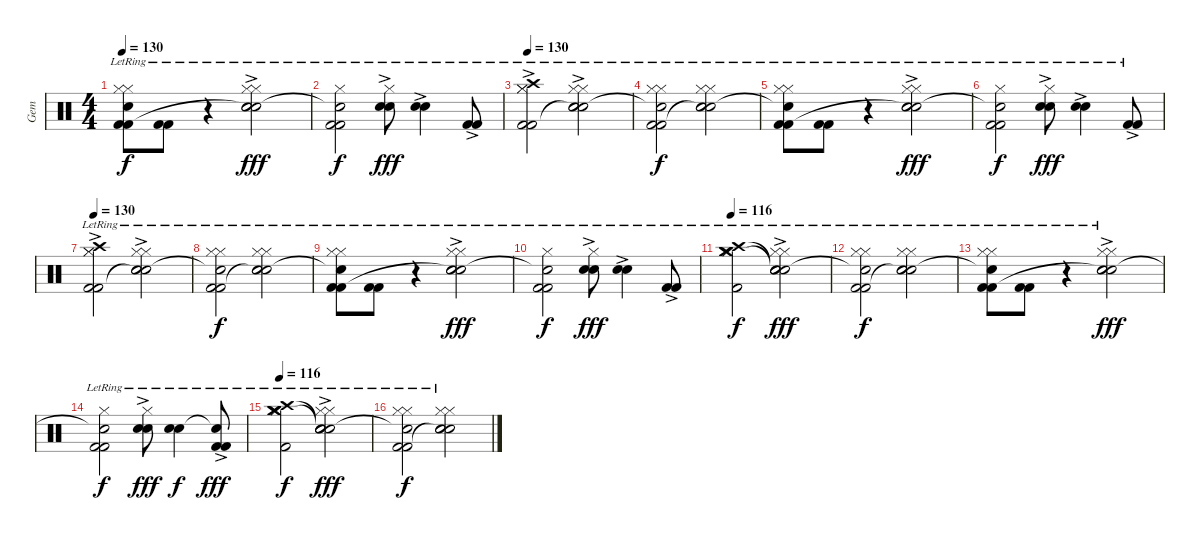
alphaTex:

\track ("Gem" "Gem") {instrument percussion}
\staff {score}
\articulation defaults
\ts (4 4)
\tempo 130
\clef neutral
\ks c
("Hi-Hat (closed)"{lr} "Hi-Hat (closed)"{lr} "Kick (hit) 2" "Snare (hit)"{t} "Kick (hit) 2"{lr}).8{dy f} ("Kick (hit) 2" "Kick (hit) 2"{lr}).8 r.4 ("Hi-Hat (closed)"{lr} "Hi-Hat (closed)"{lr} "Snare (hit) 2" "Snare (hit) 2"{ac lr} "Snare (hit)"{t}).2{dy fff} |
("Hi-Hat (closed)"{lr} "Kick (hit) 2" "Snare (hit)"{t} "Kick (hit) 2"{lr}).2{dy f} ("Hi-Hat (closed)"{lr} "Snare (hit) 2" "Snare (hit) 2"{ac lr}).8{dy fff} ("Snare (hit) 2" "Snare (hit) 2"{ac lr}).4 ("Kick (hit) 2" "Kick (hit) 2"{ac lr}).8 |
\tempo 130
("Hi-Hat (closed)"{lr} "Hi-Hat (closed)"{lr} "Kick (hit) 2" "Crash high (hit)"{ac lr} "Kick (hit) 2"{lr}).2 ("Hi-Hat (closed)"{lr} "Hi-Hat (closed)"{lr} "Snare (hit) 2" "Snare (hit) 2"{ac lr} "Snare (hit)"{t}).2 |
("Hi-Hat (closed)"{lr} "Hi-Hat (closed)"{lr} "Kick (hit) 2" "Snare (hit)"{t} "Kick (hit) 2"{lr}).2{dy f} ("Hi-Hat (closed)"{lr} "Hi-Hat (closed)"{lr} "Snare (hit) 2" "Snare (hit) 2"{lr} "Snare (hit)"{t}).2 |
("Hi-Hat (closed)"{lr} "Hi-Hat (closed)"{lr} "Kick (hit) 2" "Snare (hit)"{t} "Kick (hit) 2"{lr}).8 ("Kick (hit) 2" "Kick (hit) 2"{lr}).8 r.4 ("Hi-Hat (closed)"{lr} "Hi-Hat (closed)"{lr} "Snare (hit) 2" "Snare (hit) 2"{ac lr} "Snare (hit)"{t}).2{dy fff} |
("Hi-Hat (closed)"{lr} "Kick (hit) 2" "Snare (hit)"{t} "Kick (hit) 2"{lr}).2{dy f} ("Hi-Hat (closed)"{lr} "Snare (hit) 2" "Snare (hit) 2"{ac lr}).8{dy fff} ("Snare (hit) 2" "Snare (hit) 2"{ac lr}).4 ("Kick (hit) 2" "Kick (hit) 2"{ac lr}).8 |
\tempo 130
("Hi-Hat (closed)"{lr} "Hi-Hat (closed)"{lr} "Kick (hit) 2" "Crash high (hit)"{ac lr} "Kick (hit) 2"{lr}).2 ("Hi-Hat (closed)"{lr} "Hi-Hat (closed)"{lr} "Snare (hit) 2" "Snare (hit) 2"{ac lr} "Snare (hit)"{t}).2 |
("Hi-Hat (closed)"{lr} "Hi-Hat (closed)"{lr} "Kick (hit) 2" "Snare (hit)"{t} "Kick (hit) 2"{lr}).2{dy f} ("Hi-Hat (closed)"{lr} "Hi-Hat (closed)"{lr} "Snare (hit) 2" "Snare (hit) 2"{lr} "Snare (hit)"{t}).2 |
("Hi-Hat (closed)"{lr} "Hi-Hat (closed)"{lr} "Kick (hit) 2" "Snare (hit)"{t} "Kick (hit) 2"{lr}).8 ("Kick (hit) 2" "Kick (hit) 2"{lr}).8 r.4 ("Hi-Hat (closed)"{lr} "Hi-Hat (closed)"{lr} "Snare (hit) 2" "Snare (hit) 2"{ac lr} "Snare (hit)"{t}).2{dy fff} |
("Hi-Hat (closed)"{lr} "Kick (hit) 2" "Snare (hit)"{t} "Kick (hit) 2"{lr}).2{dy f} ("Hi-Hat (closed)"{lr} "Snare (hit) 2" "Snare (hit) 2"{ac lr}).8{dy fff} ("Snare (hit) 2" "Snare (hit) 2"{ac lr}).4 ("Kick (hit) 2" "Kick (hit) 2"{ac lr}).8 |
\tempo 116
("Hi-Hat (closed)"{lr} "Hi-Hat (closed)"{lr} "Crash medium (hit)"{lr} "Crash medium (hit)"{lr} "Kick (hit) 2"{lr} "Crash high (hit)"{lr}).2{dy f} ("Hi-Hat (closed)"{lr} "Hi-Hat (closed)"{lr} "Snare (hit)"{t} "Snare (hit) 2" "Snare (hit) 2"{ac lr} "Snare (hit)"{t}).2{dy fff} |
("Hi-Hat (closed)"{lr} "Hi-Hat (closed)"{lr} "Kick (hit) 2" "Snare (hit)"{t} "Kick (hit) 2"{lr}).2{dy f} ("Hi-Hat (closed)"{lr} "Hi-Hat (closed)"{lr} "Snare (hit) 2" "Snare (hit) 2"{lr} "Snare (hit)"{t}).2 |
("Hi-Hat (closed)"{lr} "Hi-Hat (closed)"{lr} "Kick (hit) 2" "Snare (hit)"{t} "Kick (hit) 2"{lr}).8 ("Kick (hit) 2" "Kick (hit) 2"{lr}).8 r.4 ("Hi-Hat (closed)"{lr} "Hi-Hat (closed)"{lr} "Snare (hit) 2" "Snare (hit) 2"{ac lr} "Snare (hit)"{t}).2{dy fff} |
("Hi-Hat (closed)"{lr} "Kick (hit) 2" "Snare (hit)"{t} "Kick (hit) 2"{lr}).2{dy f} ("Hi-Hat (closed)"{lr} "Snare (hit) 2" "Snare (hit) 2"{ac lr}).8{dy fff} ("Snare (hit) 2" "Snare (hit) 2"{lr}).4{dy f} ("Kick (hit) 2" "Snare (hit)"{t} "Kick (hit) 2"{ac lr}).8{dy fff} |
\tempo 116
("Hi-Hat (closed)"{lr} "Hi-Hat (closed)"{lr} "Crash medium (hit)"{lr} "Crash medium (hit)"{lr} "Kick (hit) 2"{lr} "Crash high (hit)"{lr}).2{dy f} ("Hi-Hat (closed)"{lr} "Hi-Hat (closed)"{lr} "Snare (hit)"{t} "Snare (hit) 2" "Snare (hit) 2"{ac lr} "Snare (hit)"{t}).2{dy fff} |
("Hi-Hat (closed)"{lr} "Hi-Hat (closed)"{lr} "Kick (hit) 2" "Snare (hit)"{t} "Kick (hit) 2"{lr}).2{dy f} ("Hi-Hat (closed)"{lr} "Hi-Hat (closed)"{lr} "Snare (hit) 2" "Snare (hit) 2"{lr} "Snare (hit)"{t}).2
